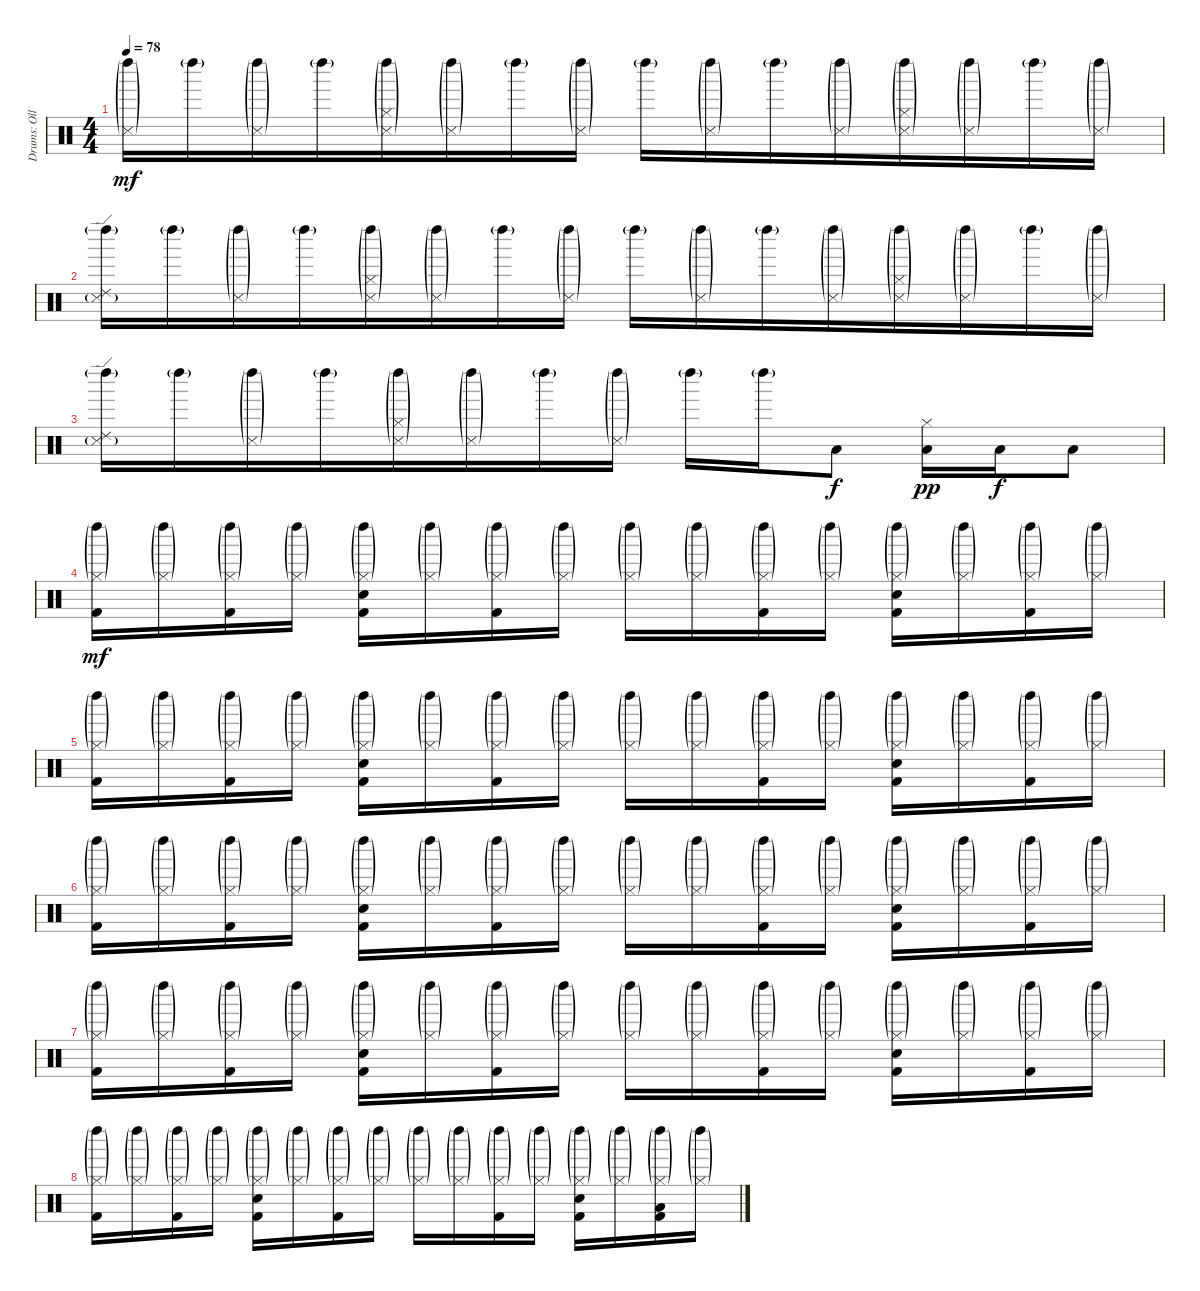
\track ("Drums: Olle Romeo" "Drums: Oll") {instrument percussion}
\staff {score}
\articulation defaults
\ts (4 4)
\tempo 78
\clef neutral
\ks c
("Snare (side stick) 3"{g} "Left Maraca (hit)"{g}).16{dy mf} "Left Maraca (hit)"{g}.16 ("Snare (side stick) 3"{g} "Left Maraca (hit)"{g}).16 "Left Maraca (hit)"{g}.16{beam merge} ("Hi-Hat (closed)"{g} "Left Maraca (hit)"{g} "Snare (side stick) 3"{g}).16 ("Snare (side stick) 3"{g} "Left Maraca (hit)"{g}).16 "Left Maraca (hit)"{g}.16 ("Snare (side stick) 3"{g} "Left Maraca (hit)"{g}).16 "Left Maraca (hit)"{g}.16 ("Snare (side stick) 3"{g} "Left Maraca (hit)"{g}).16 "Left Maraca (hit)"{g}.16 ("Snare (side stick) 3"{g} "Left Maraca (hit)"{g}).16{beam merge} ("Hi-Hat (closed)"{g} "Left Maraca (hit)"{g} "Snare (side stick) 3"{g}).16 ("Snare (side stick) 3"{g} "Left Maraca (hit)"{g}).16 "Left Maraca (hit)"{g}.16 ("Snare (side stick) 3"{g} "Left Maraca (hit)"{g}).16 |
("Ride (edge) 2" "Snare (side stick) 3"{g} "Left Maraca (hit)"{g}).16 "Left Maraca (hit)"{g}.16 ("Snare (side stick) 3"{g} "Left Maraca (hit)"{g}).16 "Left Maraca (hit)"{g}.16{beam merge} ("Hi-Hat (closed)"{g} "Left Maraca (hit)"{g} "Snare (side stick) 3"{g}).16 ("Snare (side stick) 3"{g} "Left Maraca (hit)"{g}).16 "Left Maraca (hit)"{g}.16 ("Snare (side stick) 3"{g} "Left Maraca (hit)"{g}).16 "Left Maraca (hit)"{g}.16 ("Snare (side stick) 3"{g} "Left Maraca (hit)"{g}).16 "Left Maraca (hit)"{g}.16 ("Snare (side stick) 3"{g} "Left Maraca (hit)"{g}).16{beam merge} ("Hi-Hat (closed)"{g} "Left Maraca (hit)"{g} "Snare (side stick) 3"{g}).16 ("Snare (side stick) 3"{g} "Left Maraca (hit)"{g}).16 "Left Maraca (hit)"{g}.16 ("Snare (side stick) 3"{g} "Left Maraca (hit)"{g}).16 |
("Ride (edge) 2" "Snare (side stick) 3"{g} "Left Maraca (hit)"{g}).16 "Left Maraca (hit)"{g}.16 ("Snare (side stick) 3"{g} "Left Maraca (hit)"{g}).16 "Left Maraca (hit)"{g}.16{beam merge} ("Hi-Hat (closed)"{g} "Left Maraca (hit)"{g} "Snare (side stick) 3"{g}).16 ("Snare (side stick) 3"{g} "Left Maraca (hit)"{g}).16 "Left Maraca (hit)"{g}.16 ("Snare (side stick) 3"{g} "Left Maraca (hit)"{g}).16 "Left Maraca (hit)"{g}.16 "Left Maraca (hit)"{g}.16 "Low Tom (hit)".8{dy f} ("Hi-Hat (closed)" "Low Floor Tom (hit)").16{dy pp} "Low Floor Tom (hit)".16{dy f} "Low Floor Tom (hit)".8 |
("Hi-Hat (closed)"{g} "Kick (hit) 2" "Left Maraca (hit)"{g}).16{dy mf} ("Hi-Hat (closed)"{g} "Left Maraca (hit)"{g}).16 ("Hi-Hat (closed)"{g} "Kick (hit) 2" "Left Maraca (hit)"{g}).16 ("Hi-Hat (closed)"{g} "Left Maraca (hit)"{g}).16 ("Hi-Hat (closed)"{g} "Snare (hit) 2" "Kick (hit) 2" "Left Maraca (hit)"{g}).16 ("Hi-Hat (closed)"{g} "Left Maraca (hit)"{g}).16 ("Hi-Hat (closed)"{g} "Kick (hit) 2" "Left Maraca (hit)"{g}).16 ("Hi-Hat (closed)"{g} "Left Maraca (hit)"{g}).16 ("Hi-Hat (closed)"{g} "Left Maraca (hit)"{g}).16 ("Hi-Hat (closed)"{g} "Left Maraca (hit)"{g}).16 ("Hi-Hat (closed)"{g} "Kick (hit) 2" "Left Maraca (hit)"{g}).16 ("Hi-Hat (closed)"{g} "Left Maraca (hit)"{g}).16 ("Hi-Hat (closed)"{g} "Snare (hit) 2" "Kick (hit) 2" "Left Maraca (hit)"{g}).16 ("Hi-Hat (closed)"{g} "Left Maraca (hit)"{g}).16 ("Hi-Hat (closed)"{g} "Kick (hit) 2" "Left Maraca (hit)"{g}).16 ("Hi-Hat (closed)"{g} "Left Maraca (hit)"{g}).16 |
("Hi-Hat (closed)"{g} "Kick (hit) 2" "Left Maraca (hit)"{g}).16 ("Hi-Hat (closed)"{g} "Left Maraca (hit)"{g}).16 ("Hi-Hat (closed)"{g} "Kick (hit) 2" "Left Maraca (hit)"{g}).16 ("Hi-Hat (closed)"{g} "Left Maraca (hit)"{g}).16 ("Hi-Hat (closed)"{g} "Snare (hit) 2" "Kick (hit) 2" "Left Maraca (hit)"{g}).16 ("Hi-Hat (closed)"{g} "Left Maraca (hit)"{g}).16 ("Hi-Hat (closed)"{g} "Kick (hit) 2" "Left Maraca (hit)"{g}).16 ("Hi-Hat (closed)"{g} "Left Maraca (hit)"{g}).16 ("Hi-Hat (closed)"{g} "Left Maraca (hit)"{g}).16 ("Hi-Hat (closed)"{g} "Left Maraca (hit)"{g}).16 ("Hi-Hat (closed)"{g} "Kick (hit) 2" "Left Maraca (hit)"{g}).16 ("Hi-Hat (closed)"{g} "Left Maraca (hit)"{g}).16 ("Hi-Hat (closed)"{g} "Snare (hit) 2" "Kick (hit) 2" "Left Maraca (hit)"{g}).16 ("Hi-Hat (closed)"{g} "Left Maraca (hit)"{g}).16 ("Hi-Hat (closed)"{g} "Kick (hit) 2" "Left Maraca (hit)"{g}).16 ("Hi-Hat (closed)"{g} "Left Maraca (hit)"{g}).16 |
("Hi-Hat (closed)"{g} "Kick (hit) 2" "Left Maraca (hit)"{g}).16 ("Hi-Hat (closed)"{g} "Left Maraca (hit)"{g}).16 ("Hi-Hat (closed)"{g} "Kick (hit) 2" "Left Maraca (hit)"{g}).16 ("Hi-Hat (closed)"{g} "Left Maraca (hit)"{g}).16 ("Hi-Hat (closed)"{g} "Snare (hit) 2" "Kick (hit) 2" "Left Maraca (hit)"{g}).16 ("Hi-Hat (closed)"{g} "Left Maraca (hit)"{g}).16 ("Hi-Hat (closed)"{g} "Kick (hit) 2" "Left Maraca (hit)"{g}).16 ("Hi-Hat (closed)"{g} "Left Maraca (hit)"{g}).16 ("Hi-Hat (closed)"{g} "Left Maraca (hit)"{g}).16 ("Hi-Hat (closed)"{g} "Left Maraca (hit)"{g}).16 ("Hi-Hat (closed)"{g} "Kick (hit) 2" "Left Maraca (hit)"{g}).16 ("Hi-Hat (closed)"{g} "Left Maraca (hit)"{g}).16 ("Hi-Hat (closed)"{g} "Snare (hit) 2" "Kick (hit) 2" "Left Maraca (hit)"{g}).16 ("Hi-Hat (closed)"{g} "Left Maraca (hit)"{g}).16 ("Hi-Hat (closed)"{g} "Kick (hit) 2" "Left Maraca (hit)"{g}).16 ("Hi-Hat (closed)"{g} "Left Maraca (hit)"{g}).16 |
("Hi-Hat (closed)"{g} "Kick (hit) 2" "Left Maraca (hit)"{g}).16 ("Hi-Hat (closed)"{g} "Left Maraca (hit)"{g}).16 ("Hi-Hat (closed)"{g} "Kick (hit) 2" "Left Maraca (hit)"{g}).16 ("Hi-Hat (closed)"{g} "Left Maraca (hit)"{g}).16 ("Hi-Hat (closed)"{g} "Snare (hit) 2" "Kick (hit) 2" "Left Maraca (hit)"{g}).16 ("Hi-Hat (closed)"{g} "Left Maraca (hit)"{g}).16 ("Hi-Hat (closed)"{g} "Kick (hit) 2" "Left Maraca (hit)"{g}).16 ("Hi-Hat (closed)"{g} "Left Maraca (hit)"{g}).16 ("Hi-Hat (closed)"{g} "Left Maraca (hit)"{g}).16 ("Hi-Hat (closed)"{g} "Left Maraca (hit)"{g}).16 ("Hi-Hat (closed)"{g} "Kick (hit) 2" "Left Maraca (hit)"{g}).16 ("Hi-Hat (closed)"{g} "Left Maraca (hit)"{g}).16 ("Hi-Hat (closed)"{g} "Snare (hit) 2" "Kick (hit) 2" "Left Maraca (hit)"{g}).16 ("Hi-Hat (closed)"{g} "Left Maraca (hit)"{g}).16 ("Hi-Hat (closed)"{g} "Kick (hit) 2" "Left Maraca (hit)"{g}).16 ("Hi-Hat (closed)"{g} "Left Maraca (hit)"{g}).16 |
("Hi-Hat (closed)"{g} "Kick (hit) 2" "Left Maraca (hit)"{g}).16 ("Hi-Hat (closed)"{g} "Left Maraca (hit)"{g}).16 ("Hi-Hat (closed)"{g} "Kick (hit) 2" "Left Maraca (hit)"{g}).16 ("Hi-Hat (closed)"{g} "Left Maraca (hit)"{g}).16 ("Hi-Hat (closed)"{g} "Snare (hit) 2" "Kick (hit) 2" "Left Maraca (hit)"{g}).16 ("Hi-Hat (closed)"{g} "Left Maraca (hit)"{g}).16 ("Hi-Hat (closed)"{g} "Kick (hit) 2" "Left Maraca (hit)"{g}).16 ("Hi-Hat (closed)"{g} "Left Maraca (hit)"{g}).16 ("Hi-Hat (closed)"{g} "Left Maraca (hit)"{g}).16 ("Hi-Hat (closed)"{g} "Left Maraca (hit)"{g}).16 ("Hi-Hat (closed)"{g} "Kick (hit) 2" "Left Maraca (hit)"{g}).16 ("Hi-Hat (closed)"{g} "Left Maraca (hit)"{g}).16 ("Hi-Hat (closed)"{g} "Snare (hit) 2" "Kick (hit) 2" "Left Maraca (hit)"{g}).16 ("Hi-Hat (closed)"{g} "Left Maraca (hit)"{g}).16 ("Hi-Hat (closed)"{g} "Low Floor Tom (hit)" "Kick (hit) 2" "Left Maraca (hit)"{g}).16 ("Hi-Hat (closed)"{g} "Left Maraca (hit)"{g}).16
